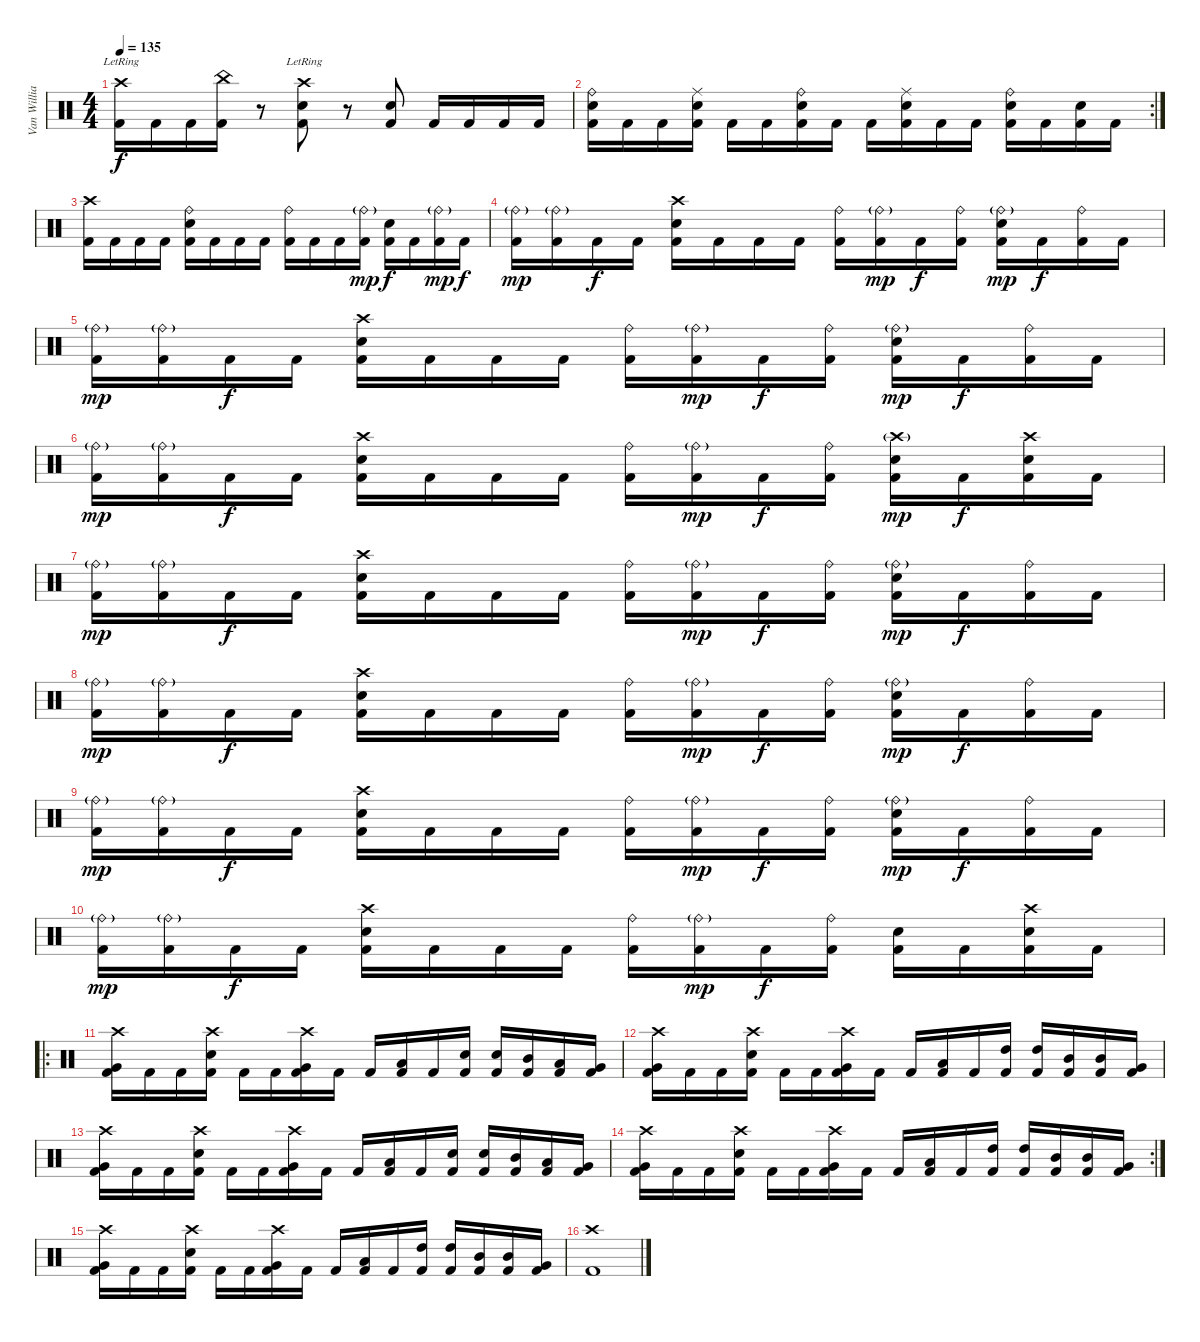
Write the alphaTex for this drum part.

\track ("Van Williams" "Van Willia") {instrument percussion}
\staff {score}
\articulation defaults
\ts (4 4)
\tempo 135
\clef neutral
\ks c
("Crash high (hit)"{lr} "Kick (hit) 2").16{dy f} "Kick (hit) 2".16 "Kick (hit) 2".16 ("China (hit)" "Kick (hit) 2").16 r.8 ("Crash high (hit)"{lr} "Kick (hit) 2" "Electric Snare (hit)").8 r.8 ("Kick (hit) 2" "Electric Snare (hit)").8 "Kick (hit) 2".16 "Kick (hit) 2".16 "Kick (hit) 2".16 "Kick (hit) 2".16 |
\rc 2
("Ride (bell)" "Kick (hit) 2" "Electric Snare (hit)").16 "Kick (hit) 2".16 "Kick (hit) 2".16 ("Ride (middle)" "Kick (hit) 2" "Electric Snare (hit)").16 "Kick (hit) 2".16 "Kick (hit) 2".16 ("Ride (bell)" "Kick (hit) 2" "Electric Snare (hit)").16 "Kick (hit) 2".16 "Kick (hit) 2".16 ("Ride (middle)" "Kick (hit) 2" "Electric Snare (hit)").16 "Kick (hit) 2".16 "Kick (hit) 2".16 ("Ride (bell)" "Kick (hit) 2" "Electric Snare (hit)").16 "Kick (hit) 2".16 ("Kick (hit) 2" "Electric Snare (hit)").16 "Kick (hit) 2".16 |
("Crash high (hit)" "Kick (hit) 2").16 "Kick (hit) 2".16 "Kick (hit) 2".16 "Kick (hit) 2".16 ("Ride (bell)" "Kick (hit) 2" "Electric Snare (hit)").16 "Kick (hit) 2".16 "Kick (hit) 2".16 "Kick (hit) 2".16 ("Ride (bell)" "Kick (hit) 2").16 "Kick (hit) 2".16 "Kick (hit) 2".16 ("Ride (bell)"{g} "Kick (hit) 2").16{dy mp} ("Kick (hit) 2" "Electric Snare (hit)").16{dy f} "Kick (hit) 2".16 ("Ride (bell)"{g} "Kick (hit) 2").16{dy mp} "Kick (hit) 2".16{dy f} |
("Ride (bell)"{g} "Kick (hit) 2").16{dy mp} ("Ride (bell)"{g} "Kick (hit) 2").16 "Kick (hit) 2".16{dy f} "Kick (hit) 2".16 ("Crash high (hit)" "Kick (hit) 2" "Electric Snare (hit)").16 "Kick (hit) 2".16 "Kick (hit) 2".16 "Kick (hit) 2".16 ("Ride (bell)" "Kick (hit) 2").16 ("Ride (bell)"{g} "Kick (hit) 2").16{dy mp} "Kick (hit) 2".16{dy f} ("Ride (bell)" "Kick (hit) 2").16 ("Ride (bell)"{g} "Kick (hit) 2" "Electric Snare (hit)").16{dy mp} "Kick (hit) 2".16{dy f} ("Ride (bell)" "Kick (hit) 2").16 "Kick (hit) 2".16 |
("Ride (bell)"{g} "Kick (hit) 2").16{dy mp} ("Ride (bell)"{g} "Kick (hit) 2").16 "Kick (hit) 2".16{dy f} "Kick (hit) 2".16 ("Crash high (hit)" "Kick (hit) 2" "Electric Snare (hit)").16 "Kick (hit) 2".16 "Kick (hit) 2".16 "Kick (hit) 2".16 ("Ride (bell)" "Kick (hit) 2").16 ("Ride (bell)"{g} "Kick (hit) 2").16{dy mp} "Kick (hit) 2".16{dy f} ("Ride (bell)" "Kick (hit) 2").16 ("Ride (bell)"{g} "Kick (hit) 2" "Electric Snare (hit)").16{dy mp} "Kick (hit) 2".16{dy f} ("Ride (bell)" "Kick (hit) 2").16 "Kick (hit) 2".16 |
("Ride (bell)"{g} "Kick (hit) 2").16{dy mp} ("Ride (bell)"{g} "Kick (hit) 2").16 "Kick (hit) 2".16{dy f} "Kick (hit) 2".16 ("Crash high (hit)" "Kick (hit) 2" "Electric Snare (hit)").16 "Kick (hit) 2".16 "Kick (hit) 2".16 "Kick (hit) 2".16 ("Ride (bell)" "Kick (hit) 2").16 ("Ride (bell)"{g} "Kick (hit) 2").16{dy mp} "Kick (hit) 2".16{dy f} ("Ride (bell)" "Kick (hit) 2").16 ("Crash high (hit)"{g} "Kick (hit) 2" "Electric Snare (hit)").16{dy mp} "Kick (hit) 2".16{dy f} ("Crash high (hit)" "Kick (hit) 2" "Electric Snare (hit)").16 "Kick (hit) 2".16 |
("Ride (bell)"{g} "Kick (hit) 2").16{dy mp} ("Ride (bell)"{g} "Kick (hit) 2").16 "Kick (hit) 2".16{dy f} "Kick (hit) 2".16 ("Crash high (hit)" "Kick (hit) 2" "Electric Snare (hit)").16 "Kick (hit) 2".16 "Kick (hit) 2".16 "Kick (hit) 2".16 ("Ride (bell)" "Kick (hit) 2").16 ("Ride (bell)"{g} "Kick (hit) 2").16{dy mp} "Kick (hit) 2".16{dy f} ("Ride (bell)" "Kick (hit) 2").16 ("Ride (bell)"{g} "Kick (hit) 2" "Electric Snare (hit)").16{dy mp} "Kick (hit) 2".16{dy f} ("Ride (bell)" "Kick (hit) 2").16 "Kick (hit) 2".16 |
("Ride (bell)"{g} "Kick (hit) 2").16{dy mp} ("Ride (bell)"{g} "Kick (hit) 2").16 "Kick (hit) 2".16{dy f} "Kick (hit) 2".16 ("Crash high (hit)" "Kick (hit) 2" "Electric Snare (hit)").16 "Kick (hit) 2".16 "Kick (hit) 2".16 "Kick (hit) 2".16 ("Ride (bell)" "Kick (hit) 2").16 ("Ride (bell)"{g} "Kick (hit) 2").16{dy mp} "Kick (hit) 2".16{dy f} ("Ride (bell)" "Kick (hit) 2").16 ("Ride (bell)"{g} "Kick (hit) 2" "Electric Snare (hit)").16{dy mp} "Kick (hit) 2".16{dy f} ("Ride (bell)" "Kick (hit) 2").16 "Kick (hit) 2".16 |
("Ride (bell)"{g} "Kick (hit) 2").16{dy mp} ("Ride (bell)"{g} "Kick (hit) 2").16 "Kick (hit) 2".16{dy f} "Kick (hit) 2".16 ("Crash high (hit)" "Kick (hit) 2" "Electric Snare (hit)").16 "Kick (hit) 2".16 "Kick (hit) 2".16 "Kick (hit) 2".16 ("Ride (bell)" "Kick (hit) 2").16 ("Ride (bell)"{g} "Kick (hit) 2").16{dy mp} "Kick (hit) 2".16{dy f} ("Ride (bell)" "Kick (hit) 2").16 ("Ride (bell)"{g} "Kick (hit) 2" "Electric Snare (hit)").16{dy mp} "Kick (hit) 2".16{dy f} ("Ride (bell)" "Kick (hit) 2").16 "Kick (hit) 2".16 |
("Ride (bell)"{g} "Kick (hit) 2").16{dy mp} ("Ride (bell)"{g} "Kick (hit) 2").16 "Kick (hit) 2".16{dy f} "Kick (hit) 2".16 ("Crash high (hit)" "Kick (hit) 2" "Electric Snare (hit)").16 "Kick (hit) 2".16 "Kick (hit) 2".16 "Kick (hit) 2".16 ("Ride (bell)" "Kick (hit) 2").16 ("Ride (bell)"{g} "Kick (hit) 2").16{dy mp} "Kick (hit) 2".16{dy f} ("Ride (bell)" "Kick (hit) 2").16 ("Kick (hit) 2" "Electric Snare (hit)").16 "Kick (hit) 2".16 ("Crash high (hit)" "Kick (hit) 2" "Electric Snare (hit)").16 "Kick (hit) 2".16 |
\ro
("Crash high (hit)" "Kick (hit) 2" "Very Low Tom (hit)").16 "Kick (hit) 2".16 "Kick (hit) 2".16 ("Crash high (hit)" "Kick (hit) 2" "Electric Snare (hit)").16 "Kick (hit) 2".16 "Kick (hit) 2".16 ("Crash high (hit)" "Kick (hit) 2" "Very Low Tom (hit)").16 "Kick (hit) 2".16 "Kick (hit) 2".16 ("Kick (hit) 2" "Low Tom (hit)").16 "Kick (hit) 2".16 ("Kick (hit) 2" "Electric Snare (hit)").16 ("Kick (hit) 2" "Electric Snare (hit)").16 ("Kick (hit) 2" "Mid Tom (hit)").16 ("Kick (hit) 2" "Low Tom (hit)").16 ("Kick (hit) 2" "Very Low Tom (hit)").16 |
("Crash high (hit)" "Kick (hit) 2" "Very Low Tom (hit)").16 "Kick (hit) 2".16 "Kick (hit) 2".16 ("Crash high (hit)" "Kick (hit) 2" "Electric Snare (hit)").16 "Kick (hit) 2".16 "Kick (hit) 2".16 ("Crash high (hit)" "Kick (hit) 2" "Very Low Tom (hit)").16 "Kick (hit) 2".16 "Kick (hit) 2".16 ("Kick (hit) 2" "Low Tom (hit)").16 "Kick (hit) 2".16 ("Kick (hit) 2" "High Tom (hit)").16 ("Kick (hit) 2" "High Tom (hit)").16 ("Kick (hit) 2" "Mid Tom (hit)").16 ("Kick (hit) 2" "Mid Tom (hit)").16 ("Kick (hit) 2" "Very Low Tom (hit)").16 |
("Crash high (hit)" "Kick (hit) 2" "Very Low Tom (hit)").16 "Kick (hit) 2".16 "Kick (hit) 2".16 ("Crash high (hit)" "Kick (hit) 2" "Electric Snare (hit)").16 "Kick (hit) 2".16 "Kick (hit) 2".16 ("Crash high (hit)" "Kick (hit) 2" "Very Low Tom (hit)").16 "Kick (hit) 2".16 "Kick (hit) 2".16 ("Kick (hit) 2" "Low Tom (hit)").16 "Kick (hit) 2".16 ("Kick (hit) 2" "Electric Snare (hit)").16 ("Kick (hit) 2" "Electric Snare (hit)").16 ("Kick (hit) 2" "Mid Tom (hit)").16 ("Kick (hit) 2" "Low Tom (hit)").16 ("Kick (hit) 2" "Very Low Tom (hit)").16 |
\rc 2
("Crash high (hit)" "Kick (hit) 2" "Very Low Tom (hit)").16 "Kick (hit) 2".16 "Kick (hit) 2".16 ("Crash high (hit)" "Kick (hit) 2" "Electric Snare (hit)").16 "Kick (hit) 2".16 "Kick (hit) 2".16 ("Crash high (hit)" "Kick (hit) 2" "Very Low Tom (hit)").16 "Kick (hit) 2".16 "Kick (hit) 2".16 ("Kick (hit) 2" "Low Tom (hit)").16 "Kick (hit) 2".16 ("Kick (hit) 2" "High Tom (hit)").16 ("Kick (hit) 2" "High Tom (hit)").16 ("Kick (hit) 2" "Mid Tom (hit)").16 ("Kick (hit) 2" "Mid Tom (hit)").16 ("Kick (hit) 2" "Very Low Tom (hit)").16 |
("Crash high (hit)" "Kick (hit) 2" "Very Low Tom (hit)").16 "Kick (hit) 2".16 "Kick (hit) 2".16 ("Crash high (hit)" "Kick (hit) 2" "Electric Snare (hit)").16 "Kick (hit) 2".16 "Kick (hit) 2".16 ("Crash high (hit)" "Kick (hit) 2" "Very Low Tom (hit)").16 "Kick (hit) 2".16 "Kick (hit) 2".16 ("Kick (hit) 2" "Low Tom (hit)").16 "Kick (hit) 2".16 ("Kick (hit) 2" "High Tom (hit)").16 ("Kick (hit) 2" "High Tom (hit)").16 ("Kick (hit) 2" "Mid Tom (hit)").16 ("Kick (hit) 2" "Mid Tom (hit)").16 ("Kick (hit) 2" "Very Low Tom (hit)").16 |
("Crash high (hit)" "Kick (hit) 2").1
